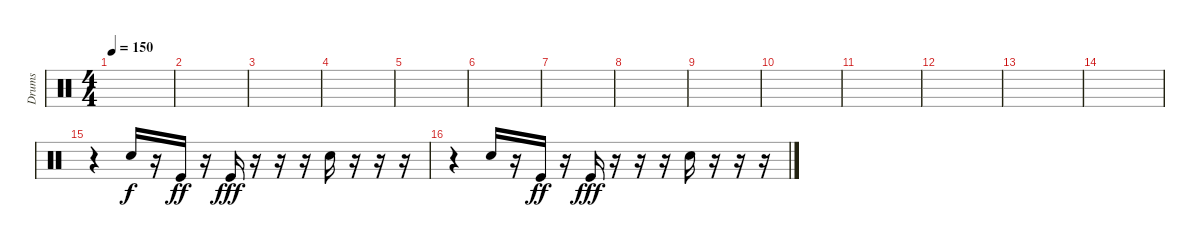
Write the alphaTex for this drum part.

\track ("Drums" "Drums") {instrument percussion}
\staff {score}
\articulation defaults
\ts (4 4)
\tempo 150
\clef neutral
\ks c
|
|
|
|
|
|
|
|
|
|
|
|
|
|
r.4 "Snare (hit) 2".16 r.16 "Kick (hit)".16{dy ff} r.16 "Kick (hit)".16{dy fff} r.16 r.16 r.16 "Snare (hit) 2".16 r.16 r.16 r.16 |
r.4 "Snare (hit) 2".16 r.16 "Kick (hit)".16{dy ff} r.16 "Kick (hit)".16{dy fff} r.16 r.16 r.16 "Snare (hit) 2".16 r.16 r.16 r.16
